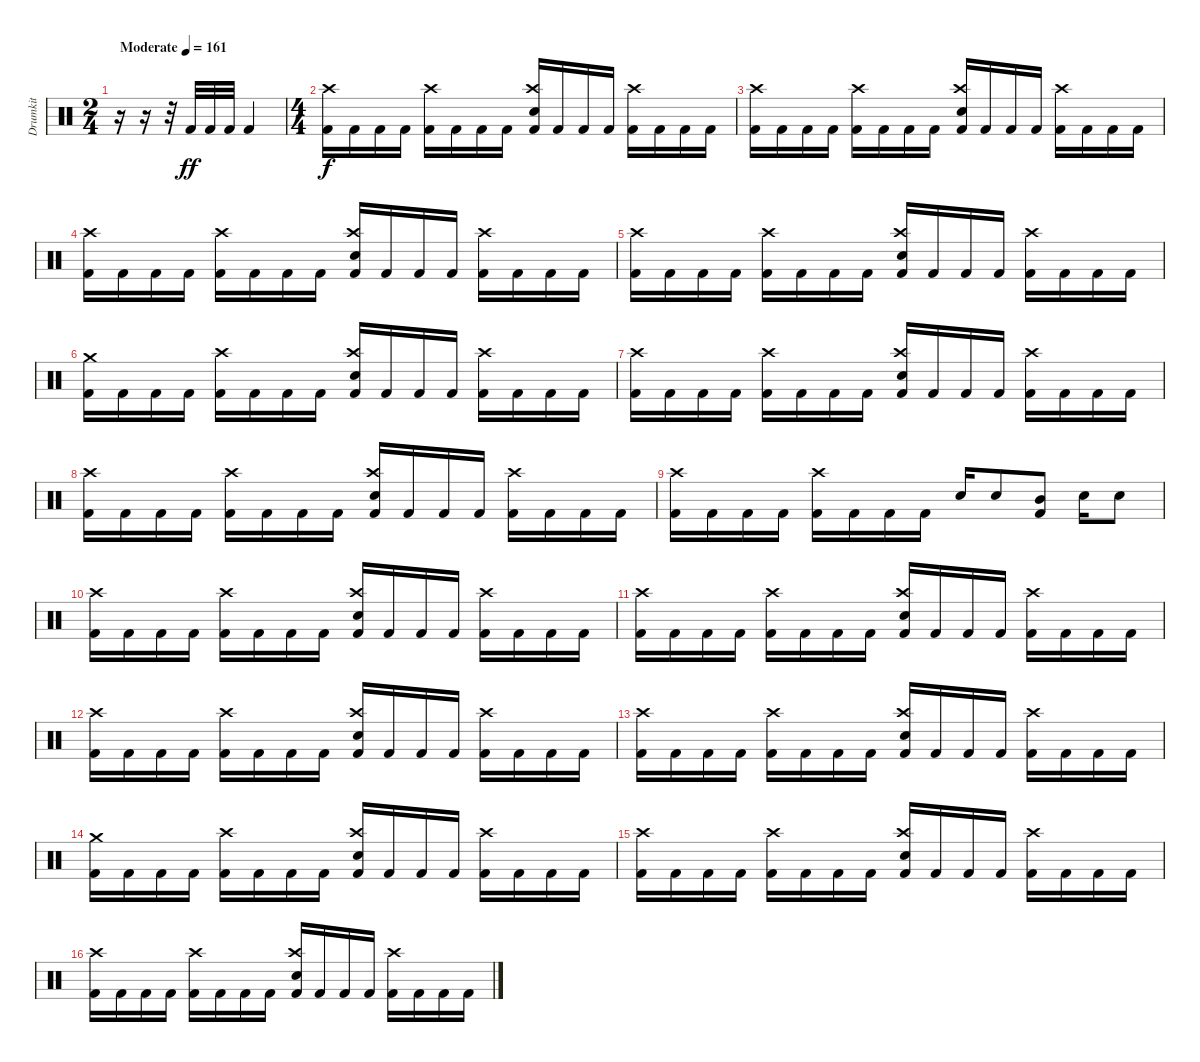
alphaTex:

\track ("Drumkit" "Drumkit") {instrument percussion}
\staff {score}
\articulation defaults
\ts (2 4)
\tempo (161 "Moderate")
\clef neutral
\ks c
r.16{dy ff} r.16 r.32 "Kick (hit) 2".32 "Kick (hit) 2".32 "Kick (hit) 2".32 "Kick (hit) 2".4 |
\ts (4 4)
("Crash high (hit)" "Kick (hit) 2").16{dy f} "Kick (hit) 2".16 "Kick (hit) 2".16 "Kick (hit) 2".16 ("Crash high (hit)" "Kick (hit) 2").16 "Kick (hit) 2".16 "Kick (hit) 2".16 "Kick (hit) 2".16 ("Crash high (hit)" "Snare (hit) 2" "Kick (hit) 2").16 "Kick (hit) 2".16 "Kick (hit) 2".16 "Kick (hit) 2".16 ("Crash high (hit)" "Kick (hit) 2").16 "Kick (hit) 2".16 "Kick (hit) 2".16 "Kick (hit) 2".16 |
("Crash high (hit)" "Kick (hit) 2").16 "Kick (hit) 2".16 "Kick (hit) 2".16 "Kick (hit) 2".16 ("Crash high (hit)" "Kick (hit) 2").16 "Kick (hit) 2".16 "Kick (hit) 2".16 "Kick (hit) 2".16 ("Crash high (hit)" "Snare (hit) 2" "Kick (hit) 2").16 "Kick (hit) 2".16 "Kick (hit) 2".16 "Kick (hit) 2".16 ("Crash high (hit)" "Kick (hit) 2").16 "Kick (hit) 2".16 "Kick (hit) 2".16 "Kick (hit) 2".16 |
("Crash high (hit)" "Kick (hit) 2").16 "Kick (hit) 2".16 "Kick (hit) 2".16 "Kick (hit) 2".16 ("Crash high (hit)" "Kick (hit) 2").16 "Kick (hit) 2".16 "Kick (hit) 2".16 "Kick (hit) 2".16 ("Crash high (hit)" "Snare (hit) 2" "Kick (hit) 2").16 "Kick (hit) 2".16 "Kick (hit) 2".16 "Kick (hit) 2".16 ("Crash high (hit)" "Kick (hit) 2").16 "Kick (hit) 2".16 "Kick (hit) 2".16 "Kick (hit) 2".16 |
("Crash high (hit)" "Kick (hit) 2").16 "Kick (hit) 2".16 "Kick (hit) 2".16 "Kick (hit) 2".16 ("Crash high (hit)" "Kick (hit) 2").16 "Kick (hit) 2".16 "Kick (hit) 2".16 "Kick (hit) 2".16 ("Crash high (hit)" "Snare (hit) 2" "Kick (hit) 2").16 "Kick (hit) 2".16 "Kick (hit) 2".16 "Kick (hit) 2".16 ("Crash high (hit)" "Kick (hit) 2").16 "Kick (hit) 2".16 "Kick (hit) 2".16 "Kick (hit) 2".16 |
("Crash medium (hit)" "Kick (hit) 2").16 "Kick (hit) 2".16 "Kick (hit) 2".16 "Kick (hit) 2".16 ("Crash high (hit)" "Kick (hit) 2").16 "Kick (hit) 2".16 "Kick (hit) 2".16 "Kick (hit) 2".16 ("Crash high (hit)" "Snare (hit) 2" "Kick (hit) 2").16 "Kick (hit) 2".16 "Kick (hit) 2".16 "Kick (hit) 2".16 ("Crash high (hit)" "Kick (hit) 2").16 "Kick (hit) 2".16 "Kick (hit) 2".16 "Kick (hit) 2".16 |
("Crash high (hit)" "Kick (hit) 2").16 "Kick (hit) 2".16 "Kick (hit) 2".16 "Kick (hit) 2".16 ("Crash high (hit)" "Kick (hit) 2").16 "Kick (hit) 2".16 "Kick (hit) 2".16 "Kick (hit) 2".16 ("Crash high (hit)" "Snare (hit) 2" "Kick (hit) 2").16 "Kick (hit) 2".16 "Kick (hit) 2".16 "Kick (hit) 2".16 ("Crash high (hit)" "Kick (hit) 2").16 "Kick (hit) 2".16 "Kick (hit) 2".16 "Kick (hit) 2".16 |
("Crash high (hit)" "Kick (hit) 2").16 "Kick (hit) 2".16 "Kick (hit) 2".16 "Kick (hit) 2".16 ("Crash high (hit)" "Kick (hit) 2").16 "Kick (hit) 2".16 "Kick (hit) 2".16 "Kick (hit) 2".16 ("Crash high (hit)" "Snare (hit) 2" "Kick (hit) 2").16 "Kick (hit) 2".16 "Kick (hit) 2".16 "Kick (hit) 2".16 ("Crash high (hit)" "Kick (hit) 2").16 "Kick (hit) 2".16 "Kick (hit) 2".16 "Kick (hit) 2".16 |
("Crash high (hit)" "Kick (hit) 2").16 "Kick (hit) 2".16 "Kick (hit) 2".16 "Kick (hit) 2".16 ("Crash high (hit)" "Kick (hit) 2").16 "Kick (hit) 2".16 "Kick (hit) 2".16 "Kick (hit) 2".16 "Snare (hit) 2".16 "Snare (hit) 2".8 ("Mid Tom (hit)" "Kick (hit) 2").8 "Snare (hit) 2".16 "Snare (hit) 2".8 |
("Crash high (hit)" "Kick (hit) 2").16 "Kick (hit) 2".16 "Kick (hit) 2".16 "Kick (hit) 2".16 ("Crash high (hit)" "Kick (hit) 2").16 "Kick (hit) 2".16 "Kick (hit) 2".16 "Kick (hit) 2".16 ("Crash high (hit)" "Snare (hit) 2" "Kick (hit) 2").16 "Kick (hit) 2".16 "Kick (hit) 2".16 "Kick (hit) 2".16 ("Crash high (hit)" "Kick (hit) 2").16 "Kick (hit) 2".16 "Kick (hit) 2".16 "Kick (hit) 2".16 |
("Crash high (hit)" "Kick (hit) 2").16 "Kick (hit) 2".16 "Kick (hit) 2".16 "Kick (hit) 2".16 ("Crash high (hit)" "Kick (hit) 2").16 "Kick (hit) 2".16 "Kick (hit) 2".16 "Kick (hit) 2".16 ("Crash high (hit)" "Snare (hit) 2" "Kick (hit) 2").16 "Kick (hit) 2".16 "Kick (hit) 2".16 "Kick (hit) 2".16 ("Crash high (hit)" "Kick (hit) 2").16 "Kick (hit) 2".16 "Kick (hit) 2".16 "Kick (hit) 2".16 |
("Crash high (hit)" "Kick (hit) 2").16 "Kick (hit) 2".16 "Kick (hit) 2".16 "Kick (hit) 2".16 ("Crash high (hit)" "Kick (hit) 2").16 "Kick (hit) 2".16 "Kick (hit) 2".16 "Kick (hit) 2".16 ("Crash high (hit)" "Snare (hit) 2" "Kick (hit) 2").16 "Kick (hit) 2".16 "Kick (hit) 2".16 "Kick (hit) 2".16 ("Crash high (hit)" "Kick (hit) 2").16 "Kick (hit) 2".16 "Kick (hit) 2".16 "Kick (hit) 2".16 |
("Crash high (hit)" "Kick (hit) 2").16 "Kick (hit) 2".16 "Kick (hit) 2".16 "Kick (hit) 2".16 ("Crash high (hit)" "Kick (hit) 2").16 "Kick (hit) 2".16 "Kick (hit) 2".16 "Kick (hit) 2".16 ("Crash high (hit)" "Snare (hit) 2" "Kick (hit) 2").16 "Kick (hit) 2".16 "Kick (hit) 2".16 "Kick (hit) 2".16 ("Crash high (hit)" "Kick (hit) 2").16 "Kick (hit) 2".16 "Kick (hit) 2".16 "Kick (hit) 2".16 |
("Crash medium (hit)" "Kick (hit) 2").16 "Kick (hit) 2".16 "Kick (hit) 2".16 "Kick (hit) 2".16 ("Crash high (hit)" "Kick (hit) 2").16 "Kick (hit) 2".16 "Kick (hit) 2".16 "Kick (hit) 2".16 ("Crash high (hit)" "Snare (hit) 2" "Kick (hit) 2").16 "Kick (hit) 2".16 "Kick (hit) 2".16 "Kick (hit) 2".16 ("Crash high (hit)" "Kick (hit) 2").16 "Kick (hit) 2".16 "Kick (hit) 2".16 "Kick (hit) 2".16 |
("Crash high (hit)" "Kick (hit) 2").16 "Kick (hit) 2".16 "Kick (hit) 2".16 "Kick (hit) 2".16 ("Crash high (hit)" "Kick (hit) 2").16 "Kick (hit) 2".16 "Kick (hit) 2".16 "Kick (hit) 2".16 ("Crash high (hit)" "Snare (hit) 2" "Kick (hit) 2").16 "Kick (hit) 2".16 "Kick (hit) 2".16 "Kick (hit) 2".16 ("Crash high (hit)" "Kick (hit) 2").16 "Kick (hit) 2".16 "Kick (hit) 2".16 "Kick (hit) 2".16 |
("Crash high (hit)" "Kick (hit) 2").16 "Kick (hit) 2".16 "Kick (hit) 2".16 "Kick (hit) 2".16 ("Crash high (hit)" "Kick (hit) 2").16 "Kick (hit) 2".16 "Kick (hit) 2".16 "Kick (hit) 2".16 ("Crash high (hit)" "Snare (hit) 2" "Kick (hit) 2").16 "Kick (hit) 2".16 "Kick (hit) 2".16 "Kick (hit) 2".16 ("Crash high (hit)" "Kick (hit) 2").16 "Kick (hit) 2".16 "Kick (hit) 2".16 "Kick (hit) 2".16
